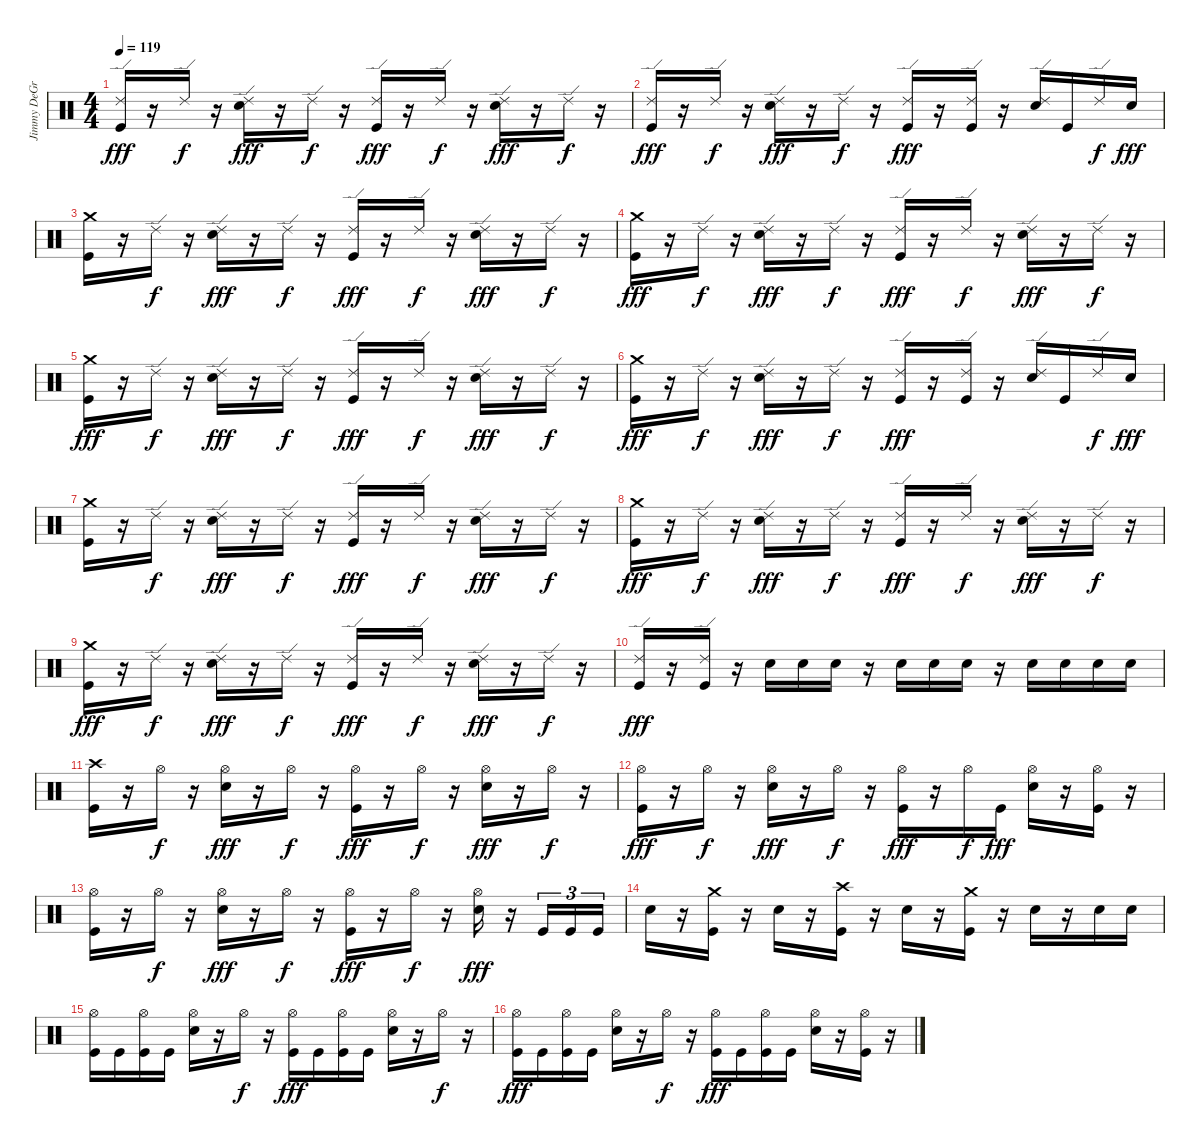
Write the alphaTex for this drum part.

\track ("Jimmy DeGrasso" "Jimmy DeGr") {instrument percussion}
\staff {score}
\articulation defaults
\ts (4 4)
\tempo 119
\clef neutral
\ks c
("Kick (hit)" "Ride (edge) 2").16{dy fff} r.16 "Ride (edge) 2".16{dy f} r.16 ("Electric Snare (hit)" "Ride (edge) 2").16{dy fff} r.16 "Ride (edge) 2".16{dy f} r.16 ("Kick (hit)" "Ride (edge) 2").16{dy fff} r.16 "Ride (edge) 2".16{dy f} r.16 ("Electric Snare (hit)" "Ride (edge) 2").16{dy fff} r.16 "Ride (edge) 2".16{dy f} r.16 |
("Kick (hit)" "Ride (edge) 2").16{dy fff} r.16 "Ride (edge) 2".16{dy f} r.16 ("Electric Snare (hit)" "Ride (edge) 2").16{dy fff} r.16 "Ride (edge) 2".16{dy f} r.16 ("Kick (hit)" "Ride (edge) 2").16{dy fff} r.16 ("Kick (hit)" "Ride (edge) 2").16 r.16 ("Electric Snare (hit)" "Ride (edge) 2").16 "Kick (hit)".16 "Ride (edge) 2".16{dy f} "Electric Snare (hit)".16{dy fff} |
("Kick (hit)" "Crash medium (hit)").16 r.16 "Ride (edge) 2".16{dy f} r.16 ("Electric Snare (hit)" "Ride (edge) 2").16{dy fff} r.16 "Ride (edge) 2".16{dy f} r.16 ("Kick (hit)" "Ride (edge) 2").16{dy fff} r.16 "Ride (edge) 2".16{dy f} r.16 ("Electric Snare (hit)" "Ride (edge) 2").16{dy fff} r.16 "Ride (edge) 2".16{dy f} r.16 |
("Kick (hit)" "Crash medium (hit)").16{dy fff} r.16 "Ride (edge) 2".16{dy f} r.16 ("Electric Snare (hit)" "Ride (edge) 2").16{dy fff} r.16 "Ride (edge) 2".16{dy f} r.16 ("Kick (hit)" "Ride (edge) 2").16{dy fff} r.16 "Ride (edge) 2".16{dy f} r.16 ("Electric Snare (hit)" "Ride (edge) 2").16{dy fff} r.16 "Ride (edge) 2".16{dy f} r.16 |
("Kick (hit)" "Crash medium (hit)").16{dy fff} r.16 "Ride (edge) 2".16{dy f} r.16 ("Electric Snare (hit)" "Ride (edge) 2").16{dy fff} r.16 "Ride (edge) 2".16{dy f} r.16 ("Kick (hit)" "Ride (edge) 2").16{dy fff} r.16 "Ride (edge) 2".16{dy f} r.16 ("Electric Snare (hit)" "Ride (edge) 2").16{dy fff} r.16 "Ride (edge) 2".16{dy f} r.16 |
("Kick (hit)" "Crash medium (hit)").16{dy fff} r.16 "Ride (edge) 2".16{dy f} r.16 ("Electric Snare (hit)" "Ride (edge) 2").16{dy fff} r.16 "Ride (edge) 2".16{dy f} r.16 ("Kick (hit)" "Ride (edge) 2").16{dy fff} r.16 ("Kick (hit)" "Ride (edge) 2").16 r.16 ("Electric Snare (hit)" "Ride (edge) 2").16 "Kick (hit)".16 "Ride (edge) 2".16{dy f} "Electric Snare (hit)".16{dy fff} |
("Kick (hit)" "Crash medium (hit)").16 r.16 "Ride (edge) 2".16{dy f} r.16 ("Electric Snare (hit)" "Ride (edge) 2").16{dy fff} r.16 "Ride (edge) 2".16{dy f} r.16 ("Kick (hit)" "Ride (edge) 2").16{dy fff} r.16 "Ride (edge) 2".16{dy f} r.16 ("Electric Snare (hit)" "Ride (edge) 2").16{dy fff} r.16 "Ride (edge) 2".16{dy f} r.16 |
("Kick (hit)" "Crash medium (hit)").16{dy fff} r.16 "Ride (edge) 2".16{dy f} r.16 ("Electric Snare (hit)" "Ride (edge) 2").16{dy fff} r.16 "Ride (edge) 2".16{dy f} r.16 ("Kick (hit)" "Ride (edge) 2").16{dy fff} r.16 "Ride (edge) 2".16{dy f} r.16 ("Electric Snare (hit)" "Ride (edge) 2").16{dy fff} r.16 "Ride (edge) 2".16{dy f} r.16 |
("Kick (hit)" "Crash medium (hit)").16{dy fff} r.16 "Ride (edge) 2".16{dy f} r.16 ("Electric Snare (hit)" "Ride (edge) 2").16{dy fff} r.16 "Ride (edge) 2".16{dy f} r.16 ("Kick (hit)" "Ride (edge) 2").16{dy fff} r.16 "Ride (edge) 2".16{dy f} r.16 ("Electric Snare (hit)" "Ride (edge) 2").16{dy fff} r.16 "Ride (edge) 2".16{dy f} r.16 |
("Kick (hit)" "Ride (edge) 2").16{dy fff} r.16 ("Kick (hit)" "Ride (edge) 2").16 r.16 "Electric Snare (hit)".16 "Electric Snare (hit)".16 "Electric Snare (hit)".16 r.16 "Electric Snare (hit)".16 "Electric Snare (hit)".16 "Electric Snare (hit)".16 r.16 "Electric Snare (hit)".16 "Electric Snare (hit)".16 "Electric Snare (hit)".16 "Electric Snare (hit)".16 |
("Kick (hit)" "Crash high (hit)").16 r.16 "Hi-Hat (open)".16{dy f} r.16 ("Electric Snare (hit)" "Hi-Hat (open)").16{dy fff} r.16 "Hi-Hat (open)".16{dy f} r.16 ("Kick (hit)" "Hi-Hat (open)").16{dy fff} r.16 "Hi-Hat (open)".16{dy f} r.16 ("Electric Snare (hit)" "Hi-Hat (open)").16{dy fff} r.16 "Hi-Hat (open)".16{dy f} r.16 |
("Kick (hit)" "Hi-Hat (open)").16{dy fff} r.16 "Hi-Hat (open)".16{dy f} r.16 ("Electric Snare (hit)" "Hi-Hat (open)").16{dy fff} r.16 "Hi-Hat (open)".16{dy f} r.16 ("Kick (hit)" "Hi-Hat (open)").16{dy fff} r.16 "Hi-Hat (open)".16{dy f} "Kick (hit)".16{dy fff} ("Electric Snare (hit)" "Hi-Hat (open)").16 r.16 ("Kick (hit)" "Hi-Hat (open)").16 r.16 |
("Kick (hit)" "Hi-Hat (open)").16 r.16 "Hi-Hat (open)".16{dy f} r.16 ("Electric Snare (hit)" "Hi-Hat (open)").16{dy fff} r.16 "Hi-Hat (open)".16{dy f} r.16 ("Kick (hit)" "Hi-Hat (open)").16{dy fff} r.16 "Hi-Hat (open)".16{dy f} r.16 ("Electric Snare (hit)" "Hi-Hat (open)").16{dy fff} r.16 "Kick (hit)".16{tu (3 2)} "Kick (hit)".16{tu (3 2)} "Kick (hit)".16{tu (3 2)} |
"Electric Snare (hit)".16 r.16 ("Kick (hit)" "Crash medium (hit)").16 r.16 "Electric Snare (hit)".16 r.16 ("Kick (hit)" "Crash high (hit)").16 r.16 "Electric Snare (hit)".16 r.16 ("Kick (hit)" "Crash medium (hit)").16 r.16 "Electric Snare (hit)".16 r.16 "Electric Snare (hit)".16 "Electric Snare (hit)".16 |
("Kick (hit)" "Hi-Hat (open)").16 "Kick (hit)".16 ("Kick (hit)" "Hi-Hat (open)").16 "Kick (hit)".16 ("Electric Snare (hit)" "Hi-Hat (open)").16 r.16 "Hi-Hat (open)".16{dy f} r.16 ("Kick (hit)" "Hi-Hat (open)").16{dy fff} "Kick (hit)".16 ("Kick (hit)" "Hi-Hat (open)").16 "Kick (hit)".16 ("Electric Snare (hit)" "Hi-Hat (open)").16 r.16 "Hi-Hat (open)".16{dy f} r.16 |
("Kick (hit)" "Hi-Hat (open)").16{dy fff} "Kick (hit)".16 ("Kick (hit)" "Hi-Hat (open)").16 "Kick (hit)".16 ("Electric Snare (hit)" "Hi-Hat (open)").16 r.16 "Hi-Hat (open)".16{dy f} r.16 ("Kick (hit)" "Hi-Hat (open)").16{dy fff} "Kick (hit)".16 ("Kick (hit)" "Hi-Hat (open)").16 "Kick (hit)".16 ("Electric Snare (hit)" "Hi-Hat (open)").16 r.16 ("Kick (hit)" "Hi-Hat (open)").16 r.16
